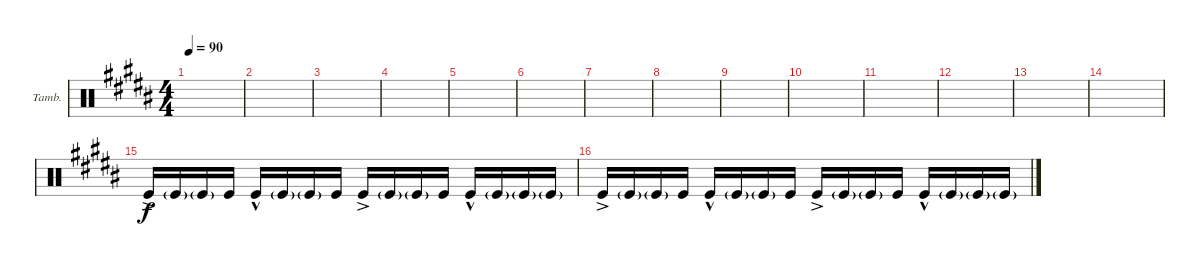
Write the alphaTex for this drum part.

\defaultSystemsLayout 4
\bracketExtendMode groupsimilarinstruments
\firstSystemTrackNameOrientation horizontal
\otherSystemsTrackNameOrientation horizontal
\track ("Tambourine" "Tamb.") {instrument percussion}
\staff {score}
\articulation defaults
\ts (4 4)
\tempo 90
\clef neutral
\ks b
|
|
|
|
|
|
|
|
|
|
|
|
|
|
"Kick (hit)"{ac}.16 "Kick (hit)"{g}.16 "Kick (hit)"{g}.16 "Kick (hit)".16 "Kick (hit)"{hac}.16 "Kick (hit)"{g}.16 "Kick (hit)"{g}.16 "Kick (hit)".16 "Kick (hit)"{ac}.16 "Kick (hit)"{g}.16 "Kick (hit)"{g}.16 "Kick (hit)".16 "Kick (hit)"{hac}.16 "Kick (hit)"{g}.16 "Kick (hit)"{g}.16 "Kick (hit)"{g}.16 |
"Kick (hit)"{ac}.16 "Kick (hit)"{g}.16 "Kick (hit)"{g}.16 "Kick (hit)".16 "Kick (hit)"{hac}.16 "Kick (hit)"{g}.16 "Kick (hit)"{g}.16 "Kick (hit)".16 "Kick (hit)"{ac}.16 "Kick (hit)"{g}.16 "Kick (hit)"{g}.16 "Kick (hit)".16 "Kick (hit)"{hac}.16 "Kick (hit)"{g}.16 "Kick (hit)"{g}.16 "Kick (hit)"{g}.16
